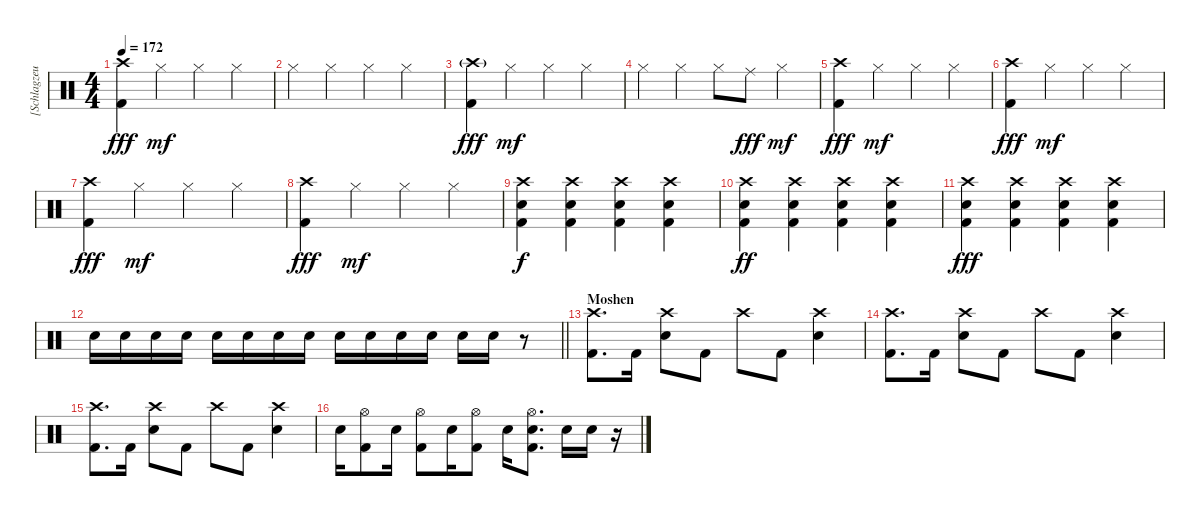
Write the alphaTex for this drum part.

\track ("[Schlagzeug]" "[Schlagzeu") {instrument percussion}
\staff {score}
\articulation defaults
\ts (4 4)
\tempo 172
\clef neutral
\ks c
("Crash high (hit)" "Kick (hit) 2").4{dy fff} "Hi-Hat (closed)".4{dy mf} "Hi-Hat (closed)".4 "Hi-Hat (closed)".4 |
"Hi-Hat (closed)".4 "Hi-Hat (closed)".4 "Hi-Hat (closed)".4 "Hi-Hat (closed)".4 |
("Crash high (hit)"{g} "Kick (hit) 2").4{dy fff} "Hi-Hat (closed)".4{dy mf} "Hi-Hat (closed)".4 "Hi-Hat (closed)".4 |
"Hi-Hat (closed)".4 "Hi-Hat (closed)".4 "Hi-Hat (closed)".8 "Ride (middle)".8{dy fff} "Hi-Hat (closed)".4{dy mf} |
("Crash high (hit)" "Kick (hit) 2").4{dy fff} "Hi-Hat (closed)".4{dy mf} "Hi-Hat (closed)".4 "Hi-Hat (closed)".4 |
("Crash high (hit)" "Kick (hit) 2").4{dy fff} "Hi-Hat (closed)".4{dy mf} "Hi-Hat (closed)".4 "Hi-Hat (closed)".4 |
("Crash high (hit)" "Kick (hit) 2").4{dy fff} "Hi-Hat (closed)".4{dy mf} "Hi-Hat (closed)".4 "Hi-Hat (closed)".4 |
("Crash high (hit)" "Kick (hit) 2").4{dy fff} "Hi-Hat (closed)".4{dy mf} "Hi-Hat (closed)".4 "Hi-Hat (closed)".4 |
("Electric Snare (hit)" "Crash high (hit)" "Kick (hit) 2").4{dy f volume 8} ("Electric Snare (hit)" "Crash high (hit)" "Kick (hit) 2").4 ("Electric Snare (hit)" "Crash high (hit)" "Kick (hit) 2").4{volume 16} ("Electric Snare (hit)" "Crash high (hit)" "Kick (hit) 2").4 |
("Electric Snare (hit)" "Crash high (hit)" "Kick (hit) 2").4{dy ff} ("Electric Snare (hit)" "Crash high (hit)" "Kick (hit) 2").4 ("Electric Snare (hit)" "Crash high (hit)" "Kick (hit) 2").4 ("Electric Snare (hit)" "Crash high (hit)" "Kick (hit) 2").4 |
("Electric Snare (hit)" "Crash high (hit)" "Kick (hit) 2").4{dy fff} ("Electric Snare (hit)" "Crash high (hit)" "Kick (hit) 2").4 ("Electric Snare (hit)" "Crash high (hit)" "Kick (hit) 2").4 ("Electric Snare (hit)" "Crash high (hit)" "Kick (hit) 2").4 |
\barLineRight lightlight "Electric Snare (hit)".16 "Electric Snare (hit)".16 "Electric Snare (hit)".16 "Electric Snare (hit)".16 "Electric Snare (hit)".16 "Electric Snare (hit)".16 "Electric Snare (hit)".16 "Electric Snare (hit)".16 "Electric Snare (hit)".16 "Electric Snare (hit)".16 "Electric Snare (hit)".16 "Electric Snare (hit)".16 "Electric Snare (hit)".16 "Electric Snare (hit)".16
r.8 |
\section ("" "Moshen")
("Crash high (hit)" "Kick (hit) 2").8{d} "Kick (hit) 2".16 ("Crash high (hit)" "Electric Snare (hit)").8 "Kick (hit) 2".8 "Crash high (hit)".8 "Kick (hit) 2".8 ("Crash high (hit)" "Electric Snare (hit)").4 |
("Crash high (hit)" "Kick (hit) 2").8{d} "Kick (hit) 2".16 ("Crash high (hit)" "Electric Snare (hit)").8 "Kick (hit) 2".8 "Crash high (hit)".8 "Kick (hit) 2".8 ("Crash high (hit)" "Electric Snare (hit)").4 |
("Crash high (hit)" "Kick (hit) 2").8{d} "Kick (hit) 2".16 ("Crash high (hit)" "Electric Snare (hit)").8 "Kick (hit) 2".8 "Crash high (hit)".8 "Kick (hit) 2".8 ("Crash high (hit)" "Electric Snare (hit)").4 |
"Electric Snare (hit)".16 ("Hi-Hat (open)" "Kick (hit) 2").8 "Electric Snare (hit)".16 ("Hi-Hat (open)" "Kick (hit) 2").8 "Electric Snare (hit)".16 ("Hi-Hat (open)" "Kick (hit) 2").8 "Electric Snare (hit)".16 ("Electric Snare (hit)" "Hi-Hat (open)" "Kick (hit) 2").8{d} "Electric Snare (hit)".16 "Electric Snare (hit)".16 r.16
